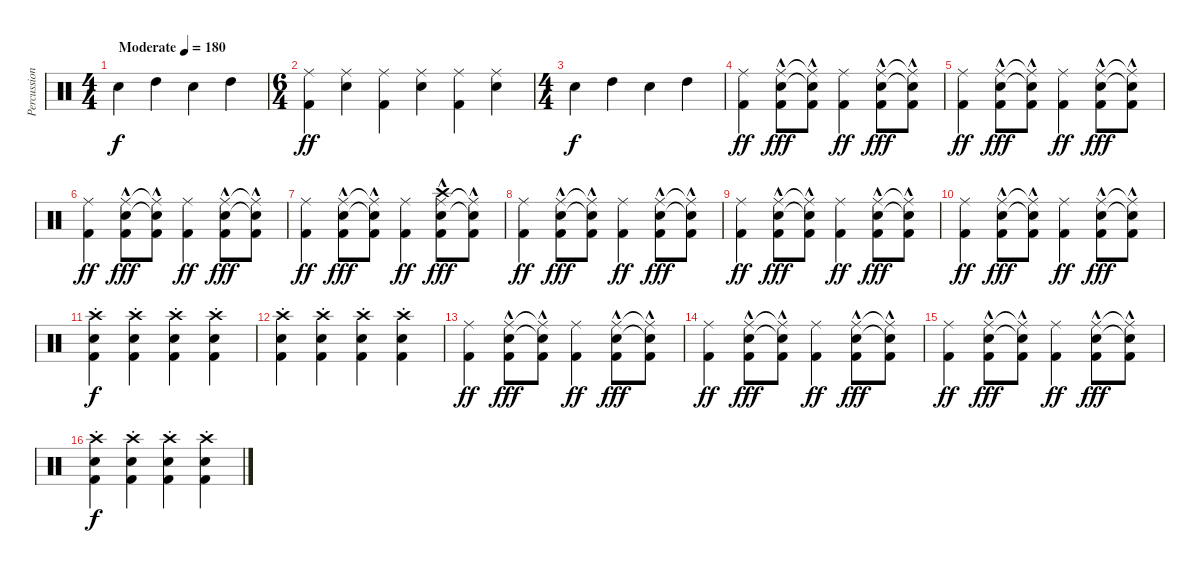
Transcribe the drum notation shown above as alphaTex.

\track ("Percussion" "Percussion") {instrument percussion}
\staff {score}
\articulation defaults
\ts (4 4)
\tempo (180 "Moderate")
\clef neutral
\ks c "Electric Snare (hit)".4{dy f} "High Tom (hit)".4 "Electric Snare (hit)".4 "High Tom (hit)".4
|
\ts (6 4)
("Kick (hit) 2" "Ride (middle)").4{dy ff} ("Electric Snare (hit)" "Ride (middle)").4 ("Kick (hit) 2" "Ride (middle)").4 ("Electric Snare (hit)" "Ride (middle)").4 ("Kick (hit) 2" "Ride (middle)").4 ("Electric Snare (hit)" "Ride (middle)").4 |
\ts (4 4)
"Electric Snare (hit)".4{dy f} "High Tom (hit)".4 "Electric Snare (hit)".4 "High Tom (hit)".4 |
("Kick (hit) 2" "Ride (middle)").4{dy ff} ("Electric Snare (hit)" "Ride (middle)" "Kick (hit) 2"{hac}).8{dy fff} ("Electric Snare (hit)"{t} "Ride (middle)"{t} "Kick (hit) 2"{hac}).8 ("Kick (hit) 2" "Ride (middle)").4{dy ff} ("Electric Snare (hit)" "Ride (middle)" "Kick (hit) 2"{hac}).8{dy fff} ("Electric Snare (hit)"{t} "Ride (middle)"{t} "Kick (hit) 2"{hac}).8 |
("Kick (hit) 2" "Ride (middle)").4{dy ff} ("Electric Snare (hit)" "Ride (middle)" "Kick (hit) 2"{hac}).8{dy fff} ("Electric Snare (hit)"{t} "Ride (middle)"{t} "Kick (hit) 2"{hac}).8 ("Kick (hit) 2" "Ride (middle)").4{dy ff} ("Electric Snare (hit)" "Ride (middle)" "Kick (hit) 2"{hac}).8{dy fff} ("Electric Snare (hit)"{t} "Ride (middle)"{t} "Kick (hit) 2"{hac}).8 |
("Kick (hit) 2" "Ride (middle)").4{dy ff} ("Electric Snare (hit)" "Ride (middle)" "Kick (hit) 2"{hac}).8{dy fff} ("Electric Snare (hit)"{t} "Ride (middle)"{t} "Kick (hit) 2"{hac}).8 ("Kick (hit) 2" "Ride (middle)").4{dy ff} ("Electric Snare (hit)" "Ride (middle)" "Kick (hit) 2"{hac}).8{dy fff} ("Electric Snare (hit)"{t} "Ride (middle)"{t} "Kick (hit) 2"{hac}).8 |
("Kick (hit) 2" "Ride (middle)").4{dy ff} ("Electric Snare (hit)" "Ride (middle)" "Kick (hit) 2"{hac}).8{dy fff} ("Electric Snare (hit)"{t} "Ride (middle)"{t} "Kick (hit) 2"{hac}).8 ("Kick (hit) 2" "Ride (middle)").4{dy ff} ("Electric Snare (hit)" "Ride (middle)" "Kick (hit) 2"{hac} "Crash high (hit)").8{dy fff} ("Electric Snare (hit)"{t} "Ride (middle)"{t} "Kick (hit) 2"{hac}).8 |
("Kick (hit) 2" "Ride (middle)").4{dy ff} ("Electric Snare (hit)" "Ride (middle)" "Kick (hit) 2"{hac}).8{dy fff} ("Electric Snare (hit)"{t} "Ride (middle)"{t} "Kick (hit) 2"{hac}).8 ("Kick (hit) 2" "Ride (middle)").4{dy ff} ("Electric Snare (hit)" "Ride (middle)" "Kick (hit) 2"{hac}).8{dy fff} ("Electric Snare (hit)"{t} "Ride (middle)"{t} "Kick (hit) 2"{hac}).8 |
("Kick (hit) 2" "Ride (middle)").4{dy ff} ("Electric Snare (hit)" "Ride (middle)" "Kick (hit) 2"{hac}).8{dy fff} ("Electric Snare (hit)"{t} "Ride (middle)"{t} "Kick (hit) 2"{hac}).8 ("Kick (hit) 2" "Ride (middle)").4{dy ff} ("Electric Snare (hit)" "Ride (middle)" "Kick (hit) 2"{hac}).8{dy fff} ("Electric Snare (hit)"{t} "Ride (middle)"{t} "Kick (hit) 2"{hac}).8 |
("Kick (hit) 2" "Ride (middle)").4{dy ff} ("Electric Snare (hit)" "Ride (middle)" "Kick (hit) 2"{hac}).8{dy fff} ("Electric Snare (hit)"{t} "Ride (middle)"{t} "Kick (hit) 2"{hac}).8 ("Kick (hit) 2" "Ride (middle)").4{dy ff} ("Electric Snare (hit)" "Ride (middle)" "Kick (hit) 2"{hac}).8{dy fff} ("Electric Snare (hit)"{t} "Ride (middle)"{t} "Kick (hit) 2"{hac}).8 |
("Crash high (hit)"{st} "Electric Snare (hit)"{st} "Kick (hit) 2").4{dy f} ("Crash high (hit)"{st} "Electric Snare (hit)"{st} "Kick (hit) 2").4 ("Crash high (hit)"{st} "Electric Snare (hit)"{st} "Kick (hit) 2").4 ("Crash high (hit)"{st} "Electric Snare (hit)"{st} "Kick (hit) 2").4 |
("Crash high (hit)"{st} "Electric Snare (hit)"{st} "Kick (hit) 2").4 ("Crash high (hit)"{st} "Electric Snare (hit)"{st} "Kick (hit) 2").4 ("Crash high (hit)"{st} "Electric Snare (hit)"{st} "Kick (hit) 2").4 ("Crash high (hit)"{st} "Electric Snare (hit)"{st} "Kick (hit) 2").4 |
("Kick (hit) 2" "Ride (middle)").4{dy ff} ("Electric Snare (hit)" "Ride (middle)" "Kick (hit) 2"{hac}).8{dy fff} ("Electric Snare (hit)"{t} "Ride (middle)"{t} "Kick (hit) 2"{hac}).8 ("Kick (hit) 2" "Ride (middle)").4{dy ff} ("Electric Snare (hit)" "Ride (middle)" "Kick (hit) 2"{hac}).8{dy fff} ("Electric Snare (hit)"{t} "Ride (middle)"{t} "Kick (hit) 2"{hac}).8 |
("Kick (hit) 2" "Ride (middle)").4{dy ff} ("Electric Snare (hit)" "Ride (middle)" "Kick (hit) 2"{hac}).8{dy fff} ("Electric Snare (hit)"{t} "Ride (middle)"{t} "Kick (hit) 2"{hac}).8 ("Kick (hit) 2" "Ride (middle)").4{dy ff} ("Electric Snare (hit)" "Ride (middle)" "Kick (hit) 2"{hac}).8{dy fff} ("Electric Snare (hit)"{t} "Ride (middle)"{t} "Kick (hit) 2"{hac}).8 |
("Kick (hit) 2" "Ride (middle)").4{dy ff} ("Electric Snare (hit)" "Ride (middle)" "Kick (hit) 2"{hac}).8{dy fff} ("Electric Snare (hit)"{t} "Ride (middle)"{t} "Kick (hit) 2"{hac}).8 ("Kick (hit) 2" "Ride (middle)").4{dy ff} ("Electric Snare (hit)" "Ride (middle)" "Kick (hit) 2"{hac}).8{dy fff} ("Electric Snare (hit)"{t} "Ride (middle)"{t} "Kick (hit) 2"{hac}).8 |
("Crash high (hit)"{st} "Electric Snare (hit)"{st} "Kick (hit) 2").4{dy f} ("Crash high (hit)"{st} "Electric Snare (hit)"{st} "Kick (hit) 2").4 ("Crash high (hit)"{st} "Electric Snare (hit)"{st} "Kick (hit) 2").4 ("Crash high (hit)"{st} "Electric Snare (hit)"{st} "Kick (hit) 2").4
